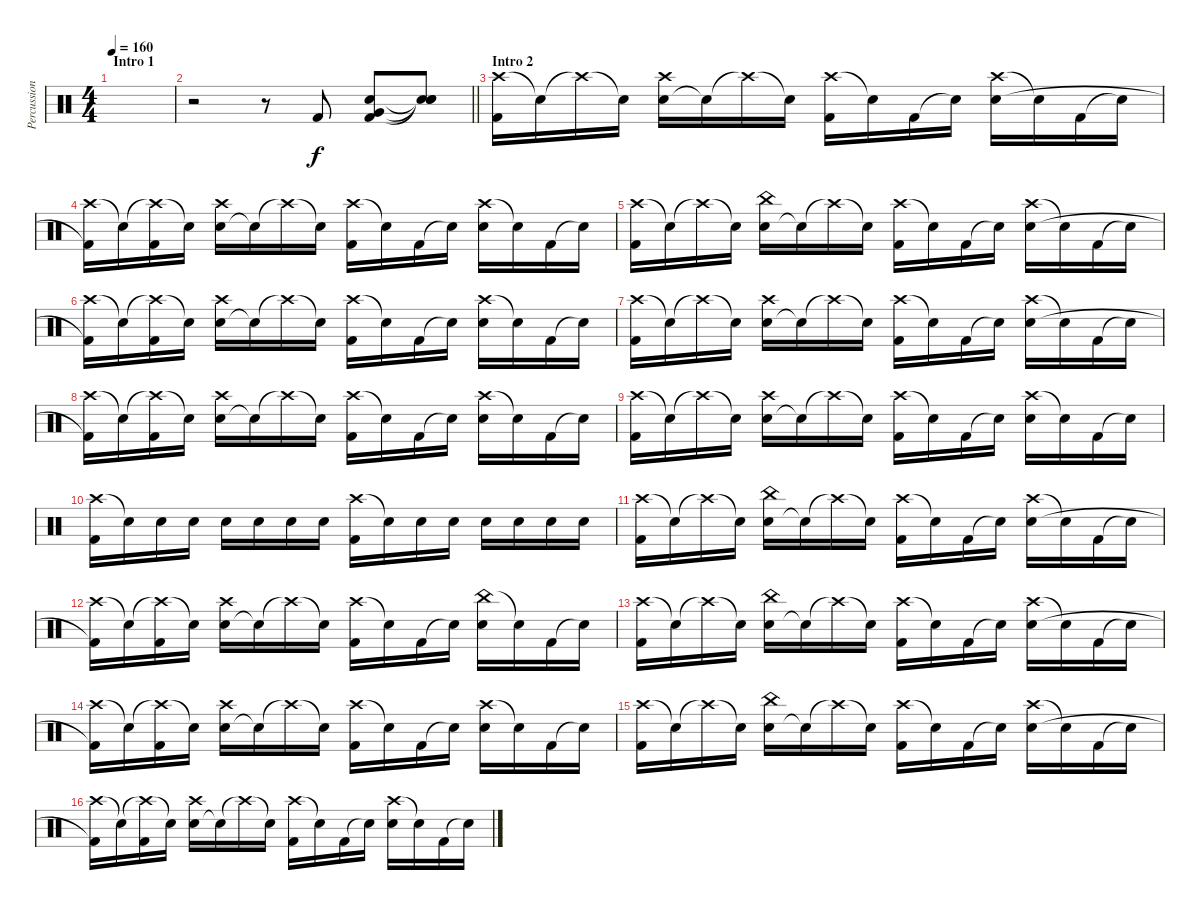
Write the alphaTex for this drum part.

\track ("Percussion" "Percussion") {instrument percussion}
\staff {score}
\articulation defaults
\ts (4 4)
\section ("" "Intro 1")
\tempo 160
\clef neutral
\ks c
|
\barLineRight lightlight
r.2 r.8 "Kick (hit) 2".8 ("Electric Snare (hit)" "Kick (hit) 2" "Very Low Tom (hit)").8 ("Snare (hit)"{t} "Snare (hit)"{t} "Snare (hit)"{t}).8 |
\section ("" "Intro 2")
("Crash high (hit)" "Kick (hit) 2").16 "Snare (hit)"{t}.16 "Crash high (hit)"{t}.16 "Snare (hit)"{t}.16 ("Electric Snare (hit)" "Crash high (hit)").16 "Snare (hit)"{t}.16 "Crash high (hit)"{t}.16 "Snare (hit)"{t}.16 ("Crash high (hit)" "Kick (hit) 2").16 "Snare (hit)"{t}.16 "Kick (hit) 2".16 "Snare (hit)"{t}.16 ("Crash high (hit)" "Electric Snare (hit)").16 "Snare (hit)"{t}.16 "Kick (hit) 2".16 "Snare (hit)"{t}.16 |
("Crash high (hit)" "Kick (hit) 2"{t}).16 "Snare (hit)"{t}.16 ("Crash high (hit)"{t} "Kick (hit) 2").16 "Snare (hit)"{t}.16 ("Electric Snare (hit)" "Crash high (hit)").16 "Snare (hit)"{t}.16 "Crash high (hit)"{t}.16 "Snare (hit)"{t}.16 ("Crash high (hit)" "Kick (hit) 2").16 "Snare (hit)"{t}.16 "Kick (hit) 2".16 "Snare (hit)"{t}.16 ("Crash high (hit)" "Electric Snare (hit)").16 "Snare (hit)"{t}.16 "Kick (hit) 2".16 "Snare (hit)"{t}.16 |
("Crash high (hit)" "Kick (hit) 2").16 "Snare (hit)"{t}.16 "Crash high (hit)"{t}.16 "Snare (hit)"{t}.16 ("Electric Snare (hit)" "China (hit)").16 "Snare (hit)"{t}.16 "Crash high (hit)"{t}.16 "Snare (hit)"{t}.16 ("Crash high (hit)" "Kick (hit) 2").16 "Snare (hit)"{t}.16 "Kick (hit) 2".16 "Snare (hit)"{t}.16 ("Crash high (hit)" "Electric Snare (hit)").16 "Snare (hit)"{t}.16 "Kick (hit) 2".16 "Snare (hit)"{t}.16 |
("Crash high (hit)" "Kick (hit) 2"{t}).16 "Snare (hit)"{t}.16 ("Crash high (hit)"{t} "Kick (hit) 2").16 "Snare (hit)"{t}.16 ("Electric Snare (hit)" "Crash high (hit)").16 "Snare (hit)"{t}.16 "Crash high (hit)"{t}.16 "Snare (hit)"{t}.16 ("Crash high (hit)" "Kick (hit) 2").16 "Snare (hit)"{t}.16 "Kick (hit) 2".16 "Snare (hit)"{t}.16 ("Crash high (hit)" "Electric Snare (hit)").16 "Snare (hit)"{t}.16 "Kick (hit) 2".16 "Snare (hit)"{t}.16 |
("Crash high (hit)" "Kick (hit) 2").16 "Snare (hit)"{t}.16 "Crash high (hit)"{t}.16 "Snare (hit)"{t}.16 ("Electric Snare (hit)" "Crash high (hit)").16 "Snare (hit)"{t}.16 "Crash high (hit)"{t}.16 "Snare (hit)"{t}.16 ("Crash high (hit)" "Kick (hit) 2").16 "Snare (hit)"{t}.16 "Kick (hit) 2".16 "Snare (hit)"{t}.16 ("Crash high (hit)" "Electric Snare (hit)").16 "Snare (hit)"{t}.16 "Kick (hit) 2".16 "Snare (hit)"{t}.16 |
("Crash high (hit)" "Kick (hit) 2"{t}).16 "Snare (hit)"{t}.16 ("Crash high (hit)"{t} "Kick (hit) 2").16 "Snare (hit)"{t}.16 ("Electric Snare (hit)" "Crash high (hit)").16 "Snare (hit)"{t}.16 "Crash high (hit)"{t}.16 "Snare (hit)"{t}.16 ("Crash high (hit)" "Kick (hit) 2").16 "Snare (hit)"{t}.16 "Kick (hit) 2".16 "Snare (hit)"{t}.16 ("Crash high (hit)" "Electric Snare (hit)").16 "Snare (hit)"{t}.16 "Kick (hit) 2".16 "Snare (hit)"{t}.16 |
("Crash high (hit)" "Kick (hit) 2").16 "Snare (hit)"{t}.16 "Crash high (hit)"{t}.16 "Snare (hit)"{t}.16 ("Electric Snare (hit)" "Crash high (hit)").16 "Snare (hit)"{t}.16 "Crash high (hit)"{t}.16 "Snare (hit)"{t}.16 ("Crash high (hit)" "Kick (hit) 2").16 "Snare (hit)"{t}.16 "Kick (hit) 2".16 "Snare (hit)"{t}.16 ("Crash high (hit)" "Electric Snare (hit)").16 "Snare (hit)"{t}.16 "Kick (hit) 2".16 "Snare (hit)"{t}.16 |
("Crash high (hit)" "Kick (hit) 2").16 "Snare (hit)"{t}.16 "Electric Snare (hit)".16 "Electric Snare (hit)".16 "Electric Snare (hit)".16 "Electric Snare (hit)".16 "Electric Snare (hit)".16 "Electric Snare (hit)".16 ("Crash high (hit)" "Kick (hit) 2").16 "Snare (hit)"{t}.16 "Electric Snare (hit)".16 "Electric Snare (hit)".16 "Electric Snare (hit)".16 "Electric Snare (hit)".16 "Electric Snare (hit)".16 "Electric Snare (hit)".16 |
("Crash high (hit)" "Kick (hit) 2").16 "Snare (hit)"{t}.16 "Crash high (hit)"{t}.16 "Snare (hit)"{t}.16 ("Electric Snare (hit)" "China (hit)").16 "Snare (hit)"{t}.16 "Crash high (hit)"{t}.16 "Snare (hit)"{t}.16 ("Crash high (hit)" "Kick (hit) 2").16 "Snare (hit)"{t}.16 "Kick (hit) 2".16 "Snare (hit)"{t}.16 ("Crash high (hit)" "Electric Snare (hit)").16 "Snare (hit)"{t}.16 "Kick (hit) 2".16 "Snare (hit)"{t}.16 |
("Crash high (hit)" "Kick (hit) 2"{t}).16 "Snare (hit)"{t}.16 ("Crash high (hit)"{t} "Kick (hit) 2").16 "Snare (hit)"{t}.16 ("Electric Snare (hit)" "Crash high (hit)").16 "Snare (hit)"{t}.16 "Crash high (hit)"{t}.16 "Snare (hit)"{t}.16 ("Crash high (hit)" "Kick (hit) 2").16 "Snare (hit)"{t}.16 "Kick (hit) 2".16 "Snare (hit)"{t}.16 ("China (hit)" "Electric Snare (hit)").16 "Snare (hit)"{t}.16 "Kick (hit) 2".16 "Snare (hit)"{t}.16 |
("Crash high (hit)" "Kick (hit) 2").16 "Snare (hit)"{t}.16 "Crash high (hit)"{t}.16 "Snare (hit)"{t}.16 ("Electric Snare (hit)" "China (hit)").16 "Snare (hit)"{t}.16 "Crash high (hit)"{t}.16 "Snare (hit)"{t}.16 ("Crash high (hit)" "Kick (hit) 2").16 "Snare (hit)"{t}.16 "Kick (hit) 2".16 "Snare (hit)"{t}.16 ("Crash high (hit)" "Electric Snare (hit)").16 "Snare (hit)"{t}.16 "Kick (hit) 2".16 "Snare (hit)"{t}.16 |
("Crash high (hit)" "Kick (hit) 2"{t}).16 "Snare (hit)"{t}.16 ("Crash high (hit)"{t} "Kick (hit) 2").16 "Snare (hit)"{t}.16 ("Electric Snare (hit)" "Crash high (hit)").16 "Snare (hit)"{t}.16 "Crash high (hit)"{t}.16 "Snare (hit)"{t}.16 ("Crash high (hit)" "Kick (hit) 2").16 "Snare (hit)"{t}.16 "Kick (hit) 2".16 "Snare (hit)"{t}.16 ("Crash high (hit)" "Electric Snare (hit)").16 "Snare (hit)"{t}.16 "Kick (hit) 2".16 "Snare (hit)"{t}.16 |
("Crash high (hit)" "Kick (hit) 2").16 "Snare (hit)"{t}.16 "Crash high (hit)"{t}.16 "Snare (hit)"{t}.16 ("Electric Snare (hit)" "China (hit)").16 "Snare (hit)"{t}.16 "Crash high (hit)"{t}.16 "Snare (hit)"{t}.16 ("Crash high (hit)" "Kick (hit) 2").16 "Snare (hit)"{t}.16 "Kick (hit) 2".16 "Snare (hit)"{t}.16 ("Crash high (hit)" "Electric Snare (hit)").16 "Snare (hit)"{t}.16 "Kick (hit) 2".16 "Snare (hit)"{t}.16 |
("Crash high (hit)" "Kick (hit) 2"{t}).16 "Snare (hit)"{t}.16 ("Crash high (hit)"{t} "Kick (hit) 2").16 "Snare (hit)"{t}.16 ("Electric Snare (hit)" "Crash high (hit)").16 "Snare (hit)"{t}.16 "Crash high (hit)"{t}.16 "Snare (hit)"{t}.16 ("Crash high (hit)" "Kick (hit) 2").16 "Snare (hit)"{t}.16 "Kick (hit) 2".16 "Snare (hit)"{t}.16 ("Crash high (hit)" "Electric Snare (hit)").16 "Snare (hit)"{t}.16 "Kick (hit) 2".16 "Snare (hit)"{t}.16
